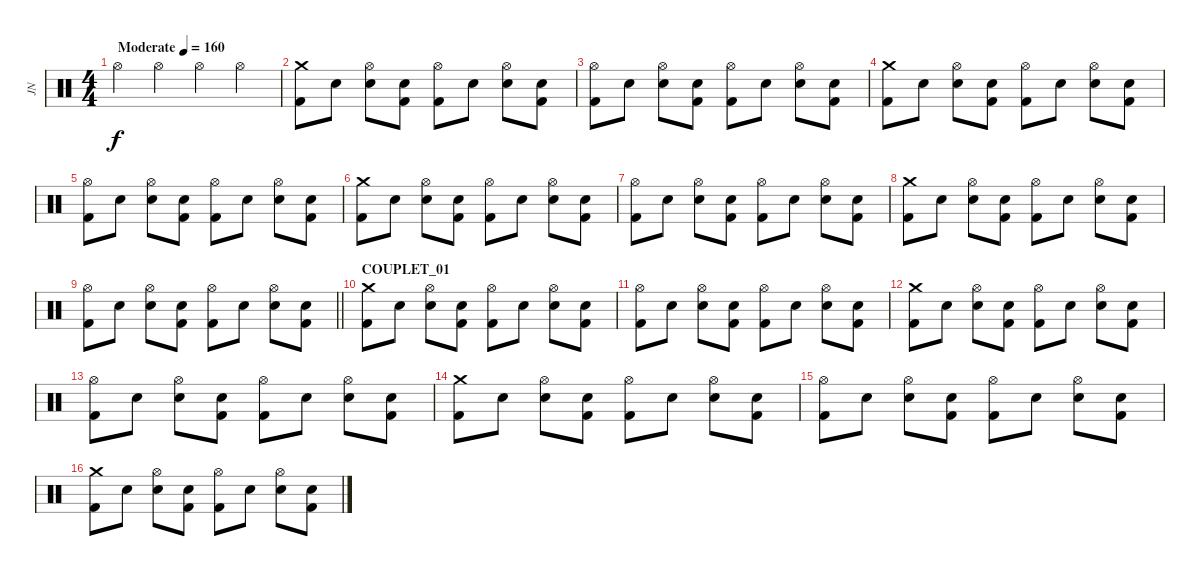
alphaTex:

\track ("JN" "JN") {instrument percussion}
\staff {score}
\articulation defaults
\ts (4 4)
\tempo (160 "Moderate")
\clef neutral
\ks c "Hi-Hat (open)".4{dy f} "Hi-Hat (open)".4 "Hi-Hat (open)".4 "Hi-Hat (open)".4
|
("Crash medium (hit)" "Kick (hit) 2").8 "Snare (hit)".8 ("Hi-Hat (open)" "Electric Snare (hit)").8 ("Snare (hit)" "Kick (hit) 2").8 ("Hi-Hat (open)" "Kick (hit) 2").8 "Snare (hit)".8 ("Hi-Hat (open)" "Electric Snare (hit)").8 ("Snare (hit)" "Kick (hit) 2").8 |
("Hi-Hat (open)" "Kick (hit) 2").8 "Snare (hit)".8 ("Hi-Hat (open)" "Electric Snare (hit)").8 ("Snare (hit)" "Kick (hit) 2").8 ("Hi-Hat (open)" "Kick (hit) 2").8 "Snare (hit)".8 ("Hi-Hat (open)" "Electric Snare (hit)").8 ("Snare (hit)" "Kick (hit) 2").8 |
("Crash medium (hit)" "Kick (hit) 2").8 "Snare (hit)".8 ("Hi-Hat (open)" "Electric Snare (hit)").8 ("Snare (hit)" "Kick (hit) 2").8 ("Hi-Hat (open)" "Kick (hit) 2").8 "Snare (hit)".8 ("Hi-Hat (open)" "Electric Snare (hit)").8 ("Snare (hit)" "Kick (hit) 2").8 |
("Hi-Hat (open)" "Kick (hit) 2").8 "Snare (hit)".8 ("Hi-Hat (open)" "Electric Snare (hit)").8 ("Snare (hit)" "Kick (hit) 2").8 ("Hi-Hat (open)" "Kick (hit) 2").8 "Snare (hit)".8 ("Hi-Hat (open)" "Electric Snare (hit)").8 ("Snare (hit)" "Kick (hit) 2").8 |
("Crash medium (hit)" "Kick (hit) 2").8 "Snare (hit)".8 ("Hi-Hat (open)" "Electric Snare (hit)").8 ("Snare (hit)" "Kick (hit) 2").8 ("Hi-Hat (open)" "Kick (hit) 2").8 "Snare (hit)".8 ("Hi-Hat (open)" "Electric Snare (hit)").8 ("Snare (hit)" "Kick (hit) 2").8 |
("Hi-Hat (open)" "Kick (hit) 2").8 "Snare (hit)".8 ("Hi-Hat (open)" "Electric Snare (hit)").8 ("Snare (hit)" "Kick (hit) 2").8 ("Hi-Hat (open)" "Kick (hit) 2").8 "Snare (hit)".8 ("Hi-Hat (open)" "Electric Snare (hit)").8 ("Snare (hit)" "Kick (hit) 2").8 |
("Crash medium (hit)" "Kick (hit) 2").8 "Snare (hit)".8 ("Hi-Hat (open)" "Electric Snare (hit)").8 ("Snare (hit)" "Kick (hit) 2").8 ("Hi-Hat (open)" "Kick (hit) 2").8 "Snare (hit)".8 ("Hi-Hat (open)" "Electric Snare (hit)").8 ("Snare (hit)" "Kick (hit) 2").8 |
\barLineRight lightlight
("Hi-Hat (open)" "Kick (hit) 2").8 "Snare (hit)".8 ("Hi-Hat (open)" "Electric Snare (hit)").8 ("Snare (hit)" "Kick (hit) 2").8 ("Hi-Hat (open)" "Kick (hit) 2").8 "Snare (hit)".8 ("Hi-Hat (open)" "Electric Snare (hit)").8 ("Snare (hit)" "Kick (hit) 2").8 |
\section ("" "COUPLET_01")
("Crash medium (hit)" "Kick (hit) 2").8 "Snare (hit)".8 ("Hi-Hat (open)" "Electric Snare (hit)").8 ("Snare (hit)" "Kick (hit) 2").8 ("Hi-Hat (open)" "Kick (hit) 2").8 "Snare (hit)".8 ("Hi-Hat (open)" "Electric Snare (hit)").8 ("Snare (hit)" "Kick (hit) 2").8 |
("Hi-Hat (open)" "Kick (hit) 2").8 "Snare (hit)".8 ("Hi-Hat (open)" "Electric Snare (hit)").8 ("Snare (hit)" "Kick (hit) 2").8 ("Hi-Hat (open)" "Kick (hit) 2").8 "Snare (hit)".8 ("Hi-Hat (open)" "Electric Snare (hit)").8 ("Snare (hit)" "Kick (hit) 2").8 |
("Crash medium (hit)" "Kick (hit) 2").8 "Snare (hit)".8 ("Hi-Hat (open)" "Electric Snare (hit)").8 ("Snare (hit)" "Kick (hit) 2").8 ("Hi-Hat (open)" "Kick (hit) 2").8 "Snare (hit)".8 ("Hi-Hat (open)" "Electric Snare (hit)").8 ("Snare (hit)" "Kick (hit) 2").8 |
("Hi-Hat (open)" "Kick (hit) 2").8 "Snare (hit)".8 ("Hi-Hat (open)" "Electric Snare (hit)").8 ("Snare (hit)" "Kick (hit) 2").8 ("Hi-Hat (open)" "Kick (hit) 2").8 "Snare (hit)".8 ("Hi-Hat (open)" "Electric Snare (hit)").8 ("Snare (hit)" "Kick (hit) 2").8 |
("Crash medium (hit)" "Kick (hit) 2").8 "Snare (hit)".8 ("Hi-Hat (open)" "Electric Snare (hit)").8 ("Snare (hit)" "Kick (hit) 2").8 ("Hi-Hat (open)" "Kick (hit) 2").8 "Snare (hit)".8 ("Hi-Hat (open)" "Electric Snare (hit)").8 ("Snare (hit)" "Kick (hit) 2").8 |
("Hi-Hat (open)" "Kick (hit) 2").8 "Snare (hit)".8 ("Hi-Hat (open)" "Electric Snare (hit)").8 ("Snare (hit)" "Kick (hit) 2").8 ("Hi-Hat (open)" "Kick (hit) 2").8 "Snare (hit)".8 ("Hi-Hat (open)" "Electric Snare (hit)").8 ("Snare (hit)" "Kick (hit) 2").8 |
("Crash medium (hit)" "Kick (hit) 2").8 "Snare (hit)".8 ("Hi-Hat (open)" "Electric Snare (hit)").8 ("Snare (hit)" "Kick (hit) 2").8 ("Hi-Hat (open)" "Kick (hit) 2").8 "Snare (hit)".8 ("Hi-Hat (open)" "Electric Snare (hit)").8 ("Snare (hit)" "Kick (hit) 2").8
